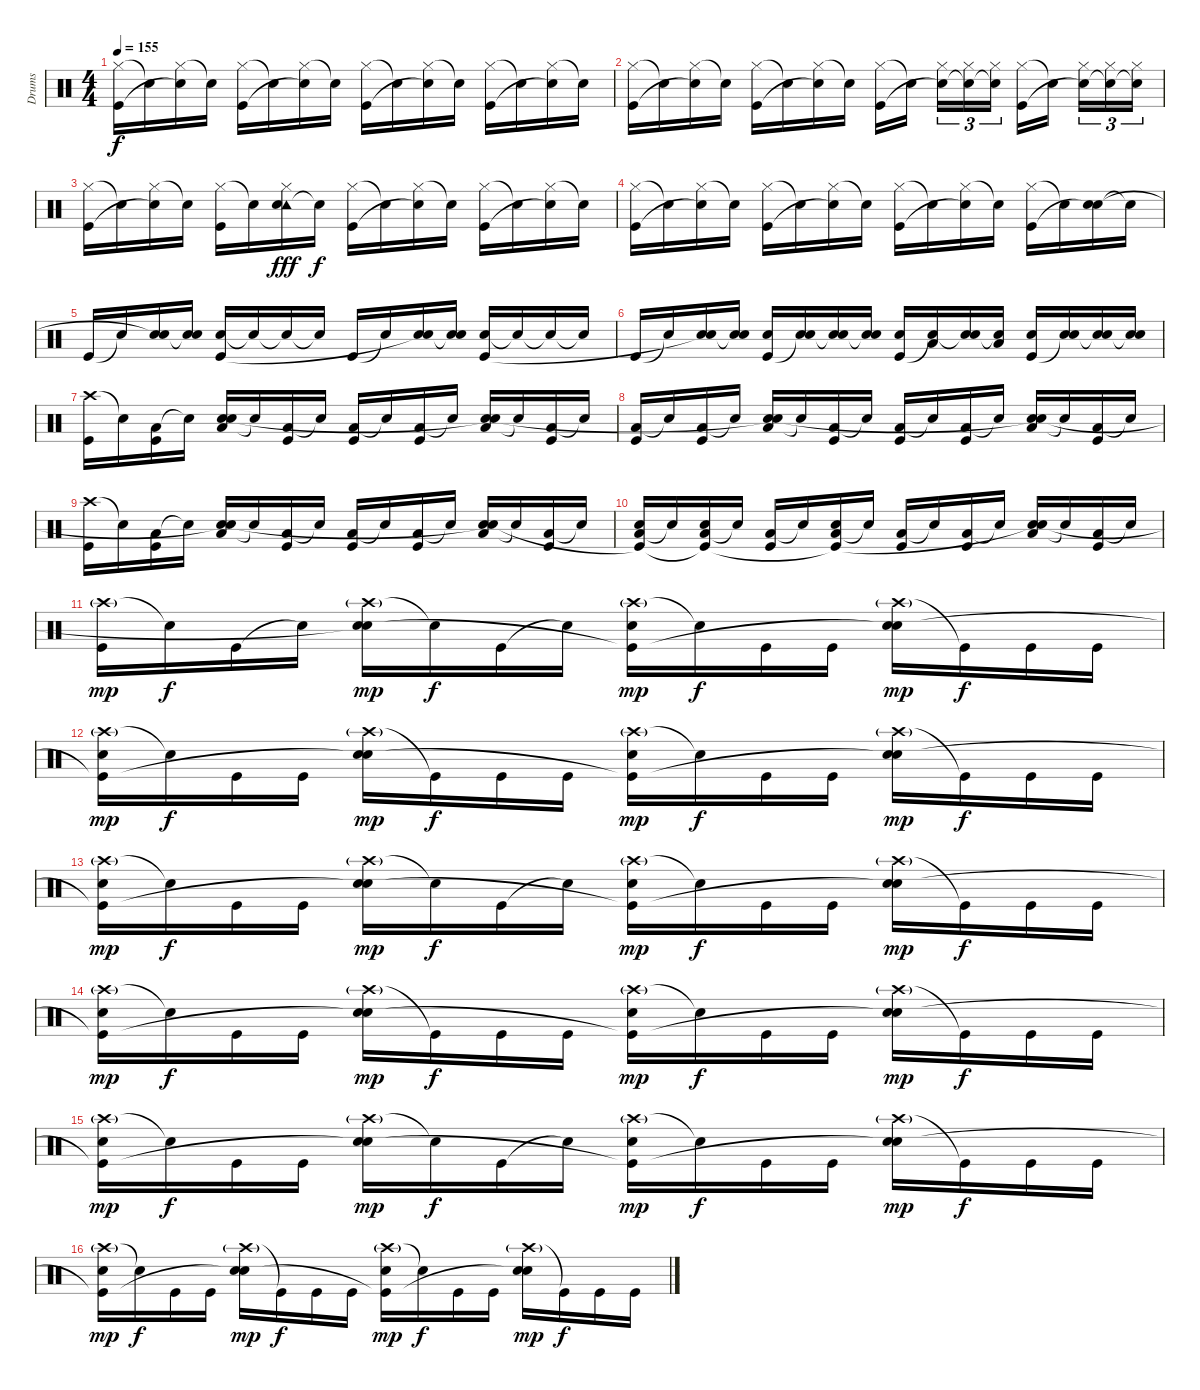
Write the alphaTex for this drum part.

\track ("Drums" "Drums") {instrument percussion}
\staff {score}
\articulation defaults
\ts (4 4)
\tempo 155
\clef neutral
\ks c
("Hi-Hat (closed)" "Kick (hit)").16{dy f} "Snare (hit)"{t}.16 ("Hi-Hat (closed)" "Snare (hit)"{t}).16 "Snare (hit)"{t}.16 ("Hi-Hat (closed)" "Kick (hit)").16 "Snare (hit)"{t}.16 ("Hi-Hat (closed)" "Snare (hit)"{t}).16 "Snare (hit)"{t}.16 ("Hi-Hat (closed)" "Kick (hit)").16 "Snare (hit)"{t}.16 ("Hi-Hat (closed)" "Snare (hit)"{t}).16 "Snare (hit)"{t}.16 ("Hi-Hat (closed)" "Kick (hit)").16 "Snare (hit)"{t}.16 ("Hi-Hat (closed)" "Snare (hit)"{t}).16 "Snare (hit)"{t}.16 |
("Hi-Hat (closed)" "Kick (hit)").16 "Snare (hit)"{t}.16 ("Hi-Hat (closed)" "Snare (hit)"{t}).16 "Snare (hit)"{t}.16 ("Hi-Hat (closed)" "Kick (hit)").16 "Snare (hit)"{t}.16 ("Hi-Hat (closed)" "Snare (hit)"{t}).16 "Snare (hit)"{t}.16 ("Hi-Hat (closed)" "Kick (hit)").16 "Snare (hit)"{t}.16{beam splitsecondary} ("Hi-Hat (closed)" "Snare (hit)"{t}).16{tu (3 2)} ("Hi-Hat (closed)" "Snare (hit)"{t}).16{tu (3 2)} ("Hi-Hat (closed)" "Snare (hit)"{t}).16{tu (3 2)} ("Hi-Hat (closed)" "Kick (hit)").16 "Snare (hit)"{t}.16{beam splitsecondary} ("Hi-Hat (closed)" "Snare (hit)"{t}).16{tu (3 2)} ("Hi-Hat (closed)" "Snare (hit)"{t}).16{tu (3 2)} ("Hi-Hat (closed)" "Snare (hit)"{t}).16{tu (3 2)} |
("Hi-Hat (closed)" "Kick (hit)").16 "Snare (hit)"{t}.16 ("Hi-Hat (closed)" "Snare (hit)"{t}).16 "Snare (hit)"{t}.16 ("Hi-Hat (closed)" "Kick (hit)").16 "Snare (hit)"{t}.16 ("Tambourine (hit)" "Hi-Hat (closed)" "Snare (hit)").16{dy fff} "Snare (hit)"{t}.16{dy f} ("Hi-Hat (closed)" "Kick (hit)").16 "Snare (hit)"{t}.16 ("Hi-Hat (closed)" "Snare (hit)"{t}).16 "Snare (hit)"{t}.16 ("Hi-Hat (closed)" "Kick (hit)").16 "Snare (hit)"{t}.16 ("Hi-Hat (closed)" "Snare (hit)"{t}).16 "Snare (hit)"{t}.16 |
("Hi-Hat (closed)" "Kick (hit)").16 "Snare (hit)"{t}.16 ("Hi-Hat (closed)" "Snare (hit)"{t}).16 "Snare (hit)"{t}.16 ("Hi-Hat (closed)" "Kick (hit)").16 "Snare (hit)"{t}.16 ("Hi-Hat (closed)" "Snare (hit)"{t}).16 "Snare (hit)"{t}.16 ("Hi-Hat (closed)" "Kick (hit)").16 "Snare (hit)"{t}.16 ("Hi-Hat (closed)" "Snare (hit)"{t}).16 "Snare (hit)"{t}.16 ("Hi-Hat (closed)" "Kick (hit)").16 "Snare (hit)"{t}.16 ("Electric Snare (hit)" "Snare (hit)"{t}).16 "Snare (hit)"{t}.16 |
"Kick (hit)".16 "Snare (hit)"{t}.16 ("Electric Snare (hit)" "Snare (hit)"{t}).16 ("Electric Snare (hit)" "Snare (hit)"{t}).16 ("Electric Snare (hit)" "Kick (hit)").16 "Snare (hit)"{t}.16 "Snare (hit)"{t}.16 "Snare (hit)"{t}.16 "Kick (hit)".16 "Snare (hit)"{t}.16 ("Electric Snare (hit)" "Snare (hit)"{t}).16 ("Electric Snare (hit)" "Snare (hit)"{t}).16 ("Electric Snare (hit)" "Kick (hit)").16 "Snare (hit)"{t}.16 "Snare (hit)"{t}.16 "Snare (hit)"{t}.16 |
"Kick (hit)".16 "Snare (hit)"{t}.16 ("Electric Snare (hit)" "Snare (hit)"{t}).16 ("Electric Snare (hit)" "Snare (hit)"{t}).16 ("Electric Snare (hit)" "Kick (hit)").16 ("Electric Snare (hit)" "Snare (hit)"{t}).16 ("Electric Snare (hit)" "Snare (hit)"{t}).16 ("Electric Snare (hit)" "Snare (hit)"{t}).16 ("Electric Snare (hit)" "Kick (hit)").16 ("Low Tom (hit)" "Snare (hit)"{t}).16 ("Electric Snare (hit)" "Snare (hit)"{t}).16 ("Low Tom (hit)" "Snare (hit)"{t}).16 ("Electric Snare (hit)" "Kick (hit)").16 ("Electric Snare (hit)" "Snare (hit)"{t}).16 ("Electric Snare (hit)" "Snare (hit)"{t}).16 ("Electric Snare (hit)" "Snare (hit)"{t}).16 |
("Crash high (hit)" "Kick (hit)").16 "Snare (hit)"{t}.16 ("Low Tom (hit)" "Kick (hit)").16 "Snare (hit)"{t}.16 ("Low Tom (hit)" "Electric Snare (hit)" "Snare (hit)").16 "Snare (hit)"{t}.16 ("Low Tom (hit)" "Kick (hit)").16 "Snare (hit)"{t}.16 ("Low Tom (hit)" "Kick (hit)").16 "Snare (hit)"{t}.16 ("Low Tom (hit)" "Kick (hit)").16 "Snare (hit)"{t}.16 ("Low Tom (hit)" "Electric Snare (hit)" "Snare (hit)"{t}).16 "Snare (hit)"{t}.16 ("Low Tom (hit)" "Kick (hit)").16 "Snare (hit)"{t}.16 |
("Low Tom (hit)" "Kick (hit)").16 "Snare (hit)"{t}.16 ("Low Tom (hit)" "Kick (hit)").16 "Snare (hit)"{t}.16 ("Low Tom (hit)" "Electric Snare (hit)" "Snare (hit)"{t}).16 "Snare (hit)"{t}.16 ("Low Tom (hit)" "Kick (hit)").16 "Snare (hit)"{t}.16 ("Low Tom (hit)" "Kick (hit)").16 "Snare (hit)"{t}.16 ("Low Tom (hit)" "Kick (hit)").16 "Snare (hit)"{t}.16 ("Low Tom (hit)" "Electric Snare (hit)" "Snare (hit)"{t}).16 "Snare (hit)"{t}.16 ("Low Tom (hit)" "Kick (hit)").16 "Snare (hit)"{t}.16 |
("Crash high (hit)" "Kick (hit)").16 "Snare (hit)"{t}.16 ("Low Tom (hit)" "Kick (hit)").16 "Snare (hit)"{t}.16 ("Low Tom (hit)" "Electric Snare (hit)" "Snare (hit)"{t}).16 "Snare (hit)"{t}.16 ("Low Tom (hit)" "Kick (hit)").16 "Snare (hit)"{t}.16 ("Low Tom (hit)" "Kick (hit)").16 "Snare (hit)"{t}.16 ("Low Tom (hit)" "Kick (hit)").16 "Snare (hit)"{t}.16 ("Low Tom (hit)" "Electric Snare (hit)" "Snare (hit)"{t}).16 "Snare (hit)"{t}.16 ("Low Tom (hit)" "Kick (hit)").16 "Snare (hit)"{t}.16 |
("Low Tom (hit)" "Electric Snare (hit)" "Kick (hit)"{t}).16 "Snare (hit)"{t}.16 ("Low Tom (hit)" "Electric Snare (hit)" "Kick (hit)"{t}).16 "Snare (hit)"{t}.16 ("Low Tom (hit)" "Kick (hit)").16 "Snare (hit)"{t}.16 ("Low Tom (hit)" "Electric Snare (hit)" "Kick (hit)"{t}).16 "Snare (hit)"{t}.16 ("Low Tom (hit)" "Kick (hit)").16 "Snare (hit)"{t}.16 ("Low Tom (hit)" "Kick (hit)").16 "Snare (hit)"{t}.16 ("Low Tom (hit)" "Electric Snare (hit)" "Snare (hit)"{t}).16 "Snare (hit)"{t}.16 ("Low Tom (hit)" "Kick (hit)").16 "Snare (hit)"{t}.16 |
("Crash high (hit)"{g} "Kick (hit)").16{dy mp} "Snare (hit)"{t}.16{dy f} "Kick (hit)".16 "Snare (hit)"{t}.16 ("Crash high (hit)"{g} "Electric Snare (hit)" "Snare (hit)"{t}).16{dy mp} "Snare (hit)"{t}.16{dy f} "Kick (hit)".16 "Snare (hit)"{t}.16 ("Crash high (hit)"{g} "Electric Snare (hit)" "Kick (hit)"{t}).16{dy mp} "Snare (hit)"{t}.16{dy f} "Kick (hit)".16 "Kick (hit)".16 ("Crash high (hit)"{g} "Electric Snare (hit)" "Snare (hit)"{t}).16{dy mp} "Kick (hit)"{t}.16{dy f} "Kick (hit)".16 "Kick (hit)".16 |
("Crash high (hit)"{g} "Electric Snare (hit)" "Kick (hit)"{t}).16{dy mp} "Snare (hit)"{t}.16{dy f} "Kick (hit)".16 "Kick (hit)".16 ("Crash high (hit)"{g} "Electric Snare (hit)" "Snare (hit)"{t}).16{dy mp} "Kick (hit)"{t}.16{dy f} "Kick (hit)".16 "Kick (hit)".16 ("Crash high (hit)"{g} "Electric Snare (hit)" "Kick (hit)"{t}).16{dy mp} "Snare (hit)"{t}.16{dy f} "Kick (hit)".16 "Kick (hit)".16 ("Crash high (hit)"{g} "Electric Snare (hit)" "Snare (hit)"{t}).16{dy mp} "Kick (hit)"{t}.16{dy f} "Kick (hit)".16 "Kick (hit)".16 |
("Crash high (hit)"{g} "Electric Snare (hit)" "Kick (hit)"{t}).16{dy mp} "Snare (hit)"{t}.16{dy f} "Kick (hit)".16 "Kick (hit)".16 ("Crash high (hit)"{g} "Electric Snare (hit)" "Snare (hit)"{t}).16{dy mp} "Snare (hit)"{t}.16{dy f} "Kick (hit)".16 "Snare (hit)"{t}.16 ("Crash high (hit)"{g} "Electric Snare (hit)" "Kick (hit)"{t}).16{dy mp} "Snare (hit)"{t}.16{dy f} "Kick (hit)".16 "Kick (hit)".16 ("Crash high (hit)"{g} "Electric Snare (hit)" "Snare (hit)"{t}).16{dy mp} "Kick (hit)"{t}.16{dy f} "Kick (hit)".16 "Kick (hit)".16 |
("Crash high (hit)"{g} "Electric Snare (hit)" "Kick (hit)"{t}).16{dy mp} "Snare (hit)"{t}.16{dy f} "Kick (hit)".16 "Kick (hit)".16 ("Crash high (hit)"{g} "Electric Snare (hit)" "Snare (hit)"{t}).16{dy mp} "Kick (hit)"{t}.16{dy f} "Kick (hit)".16 "Kick (hit)".16 ("Crash high (hit)"{g} "Electric Snare (hit)" "Kick (hit)"{t}).16{dy mp} "Snare (hit)"{t}.16{dy f} "Kick (hit)".16 "Kick (hit)".16 ("Crash high (hit)"{g} "Electric Snare (hit)" "Snare (hit)"{t}).16{dy mp} "Kick (hit)"{t}.16{dy f} "Kick (hit)".16 "Kick (hit)".16 |
("Crash high (hit)"{g} "Electric Snare (hit)" "Kick (hit)"{t}).16{dy mp} "Snare (hit)"{t}.16{dy f} "Kick (hit)".16 "Kick (hit)".16 ("Crash high (hit)"{g} "Electric Snare (hit)" "Snare (hit)"{t}).16{dy mp} "Snare (hit)"{t}.16{dy f} "Kick (hit)".16 "Snare (hit)"{t}.16 ("Crash high (hit)"{g} "Electric Snare (hit)" "Kick (hit)"{t}).16{dy mp} "Snare (hit)"{t}.16{dy f} "Kick (hit)".16 "Kick (hit)".16 ("Crash high (hit)"{g} "Electric Snare (hit)" "Snare (hit)"{t}).16{dy mp} "Kick (hit)"{t}.16{dy f} "Kick (hit)".16 "Kick (hit)".16 |
("Crash high (hit)"{g} "Electric Snare (hit)" "Kick (hit)"{t}).16{dy mp} "Snare (hit)"{t}.16{dy f} "Kick (hit)".16 "Kick (hit)".16 ("Crash high (hit)"{g} "Electric Snare (hit)" "Snare (hit)"{t}).16{dy mp} "Kick (hit)"{t}.16{dy f} "Kick (hit)".16 "Kick (hit)".16 ("Crash high (hit)"{g} "Electric Snare (hit)" "Kick (hit)"{t}).16{dy mp} "Snare (hit)"{t}.16{dy f} "Kick (hit)".16 "Kick (hit)".16 ("Crash high (hit)"{g} "Electric Snare (hit)" "Snare (hit)"{t}).16{dy mp} "Kick (hit)"{t}.16{dy f} "Kick (hit)".16 "Kick (hit)".16
